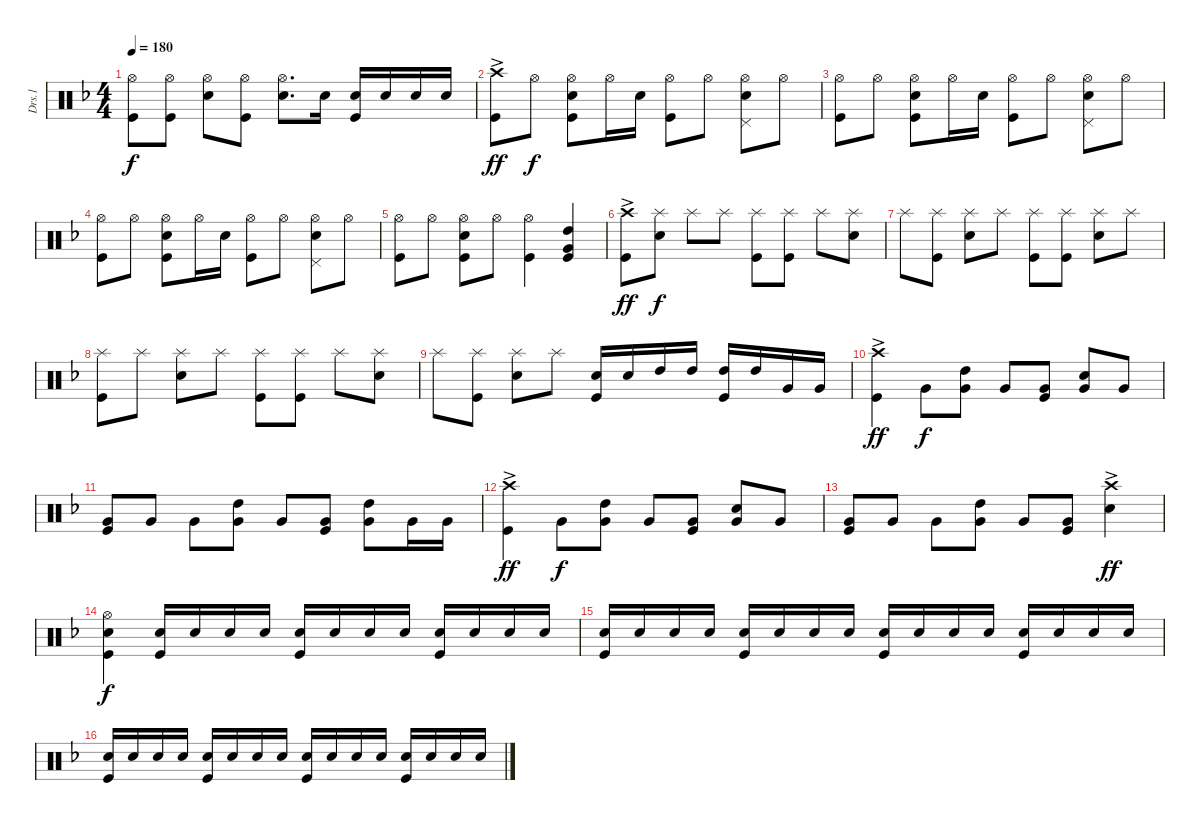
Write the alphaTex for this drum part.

\track ("Drs.1" "Drs.1") {instrument percussion}
\staff {score}
\articulation defaults
\ts (4 4)
\tempo 180
\clef neutral
\ks f
("Hi-Hat (open)" "Kick (hit)").8{dy f} ("Hi-Hat (open)" "Kick (hit)").8 ("Hi-Hat (open)" "Snare (hit) 2").8 ("Hi-Hat (open)" "Kick (hit)").8 ("Hi-Hat (open)" "Snare (hit) 2").8{d} "Snare (hit) 2".16 ("Snare (hit) 2" "Kick (hit)").16 "Snare (hit) 2".16 "Snare (hit) 2".16 "Snare (hit) 2".16 |
("Crash high (hit)"{ac} "Kick (hit)").8{dy ff} "Hi-Hat (open)".8{dy f} ("Hi-Hat (open)" "Snare (hit) 2" "Kick (hit)").8 "Hi-Hat (open)".16 "Snare (hit) 2".16 ("Hi-Hat (open)" "Kick (hit)").8 "Hi-Hat (open)".8 ("Hi-Hat (open)" "Snare (hit) 2" "Pedal Hi-Hat (hit)").8 "Hi-Hat (open)".8 |
("Hi-Hat (open)" "Kick (hit)").8 "Hi-Hat (open)".8 ("Hi-Hat (open)" "Snare (hit) 2" "Kick (hit)").8 "Hi-Hat (open)".16 "Snare (hit) 2".16 ("Hi-Hat (open)" "Kick (hit)").8 "Hi-Hat (open)".8 ("Hi-Hat (open)" "Snare (hit) 2" "Pedal Hi-Hat (hit)").8 "Hi-Hat (open)".8 |
("Hi-Hat (open)" "Kick (hit)").8 "Hi-Hat (open)".8 ("Hi-Hat (open)" "Snare (hit) 2" "Kick (hit)").8 "Hi-Hat (open)".16 "Snare (hit) 2".16 ("Hi-Hat (open)" "Kick (hit)").8 "Hi-Hat (open)".8 ("Hi-Hat (open)" "Snare (hit) 2" "Pedal Hi-Hat (hit)").8 "Hi-Hat (open)".8 |
("Hi-Hat (open)" "Kick (hit)").8 "Hi-Hat (open)".8 ("Hi-Hat (open)" "Snare (hit) 2" "Kick (hit)").8 "Hi-Hat (open)".8 ("Hi-Hat (open)" "Kick (hit)").4 ("High Tom (hit)" "Very Low Tom (hit)" "Kick (hit)").4 |
("Crash high (hit)"{ac} "Kick (hit)").8{dy ff} ("Splash (hit)" "Snare (hit) 2").8{dy f} "Splash (hit)".8 "Splash (hit)".8 ("Splash (hit)" "Kick (hit)").8 ("Splash (hit)" "Kick (hit)").8 "Splash (hit)".8 ("Splash (hit)" "Snare (hit) 2").8 |
"Splash (hit)".8 ("Splash (hit)" "Kick (hit)").8 ("Splash (hit)" "Snare (hit) 2").8 "Splash (hit)".8 ("Splash (hit)" "Kick (hit)").8 ("Splash (hit)" "Kick (hit)").8 ("Splash (hit)" "Snare (hit) 2").8 "Splash (hit)".8 |
("Splash (hit)" "Kick (hit)").8 "Splash (hit)".8 ("Splash (hit)" "Snare (hit) 2").8 "Splash (hit)".8 ("Splash (hit)" "Kick (hit)").8 ("Splash (hit)" "Kick (hit)").8 "Splash (hit)".8 ("Splash (hit)" "Snare (hit) 2").8 |
"Splash (hit)".8 ("Splash (hit)" "Kick (hit)").8 ("Splash (hit)" "Snare (hit) 2").8 "Splash (hit)".8 ("Snare (hit) 2" "Kick (hit)").16 "Snare (hit) 2".16 "High Tom (hit)".16 "High Tom (hit)".16 ("High Tom (hit)" "Kick (hit)").16 "High Tom (hit)".16 "Very Low Tom (hit)".16 "Very Low Tom (hit)".16 |
("Crash high (hit)"{ac} "Kick (hit)").4{dy ff} "Very Low Tom (hit)".8{dy f} ("High Tom (hit)" "Very Low Tom (hit)").8 "Very Low Tom (hit)".8 ("Very Low Tom (hit)" "Kick (hit)").8 ("Snare (hit) 2" "Very Low Tom (hit)").8 "Very Low Tom (hit)".8 |
("Very Low Tom (hit)" "Kick (hit)").8 "Very Low Tom (hit)".8 "Very Low Tom (hit)".8 ("High Tom (hit)" "Very Low Tom (hit)").8 "Very Low Tom (hit)".8 ("Very Low Tom (hit)" "Kick (hit)").8 ("High Tom (hit)" "Very Low Tom (hit)").8 "Very Low Tom (hit)".16 "Very Low Tom (hit)".16 |
("Crash high (hit)"{ac} "Kick (hit)").4{dy ff} "Very Low Tom (hit)".8{dy f} ("High Tom (hit)" "Very Low Tom (hit)").8 "Very Low Tom (hit)".8 ("Very Low Tom (hit)" "Kick (hit)").8 ("Snare (hit) 2" "Very Low Tom (hit)").8 "Very Low Tom (hit)".8 |
("Very Low Tom (hit)" "Kick (hit)").8 "Very Low Tom (hit)".8 "Very Low Tom (hit)".8 ("High Tom (hit)" "Very Low Tom (hit)").8 "Very Low Tom (hit)".8 ("Very Low Tom (hit)" "Kick (hit)").8 ("Crash high (hit)"{ac} "Snare (hit) 2").4{dy ff} |
("Hi-Hat (open)" "Snare (hit) 2" "Kick (hit)").4{dy f} ("Snare (hit) 2" "Kick (hit)").16 "Snare (hit) 2".16 "Snare (hit) 2".16 "Snare (hit) 2".16 ("Snare (hit) 2" "Kick (hit)").16 "Snare (hit) 2".16 "Snare (hit) 2".16 "Snare (hit) 2".16 ("Snare (hit) 2" "Kick (hit)").16 "Snare (hit) 2".16 "Snare (hit) 2".16 "Snare (hit) 2".16 |
("Snare (hit) 2" "Kick (hit)").16 "Snare (hit) 2".16 "Snare (hit) 2".16 "Snare (hit) 2".16 ("Snare (hit) 2" "Kick (hit)").16 "Snare (hit) 2".16 "Snare (hit) 2".16 "Snare (hit) 2".16 ("Snare (hit) 2" "Kick (hit)").16 "Snare (hit) 2".16 "Snare (hit) 2".16 "Snare (hit) 2".16 ("Snare (hit) 2" "Kick (hit)").16 "Snare (hit) 2".16 "Snare (hit) 2".16 "Snare (hit) 2".16 |
("Snare (hit) 2" "Kick (hit)").16 "Snare (hit) 2".16 "Snare (hit) 2".16 "Snare (hit) 2".16 ("Snare (hit) 2" "Kick (hit)").16 "Snare (hit) 2".16 "Snare (hit) 2".16 "Snare (hit) 2".16 ("Snare (hit) 2" "Kick (hit)").16 "Snare (hit) 2".16 "Snare (hit) 2".16 "Snare (hit) 2".16 ("Snare (hit) 2" "Kick (hit)").16 "Snare (hit) 2".16 "Snare (hit) 2".16 "Snare (hit) 2".16
